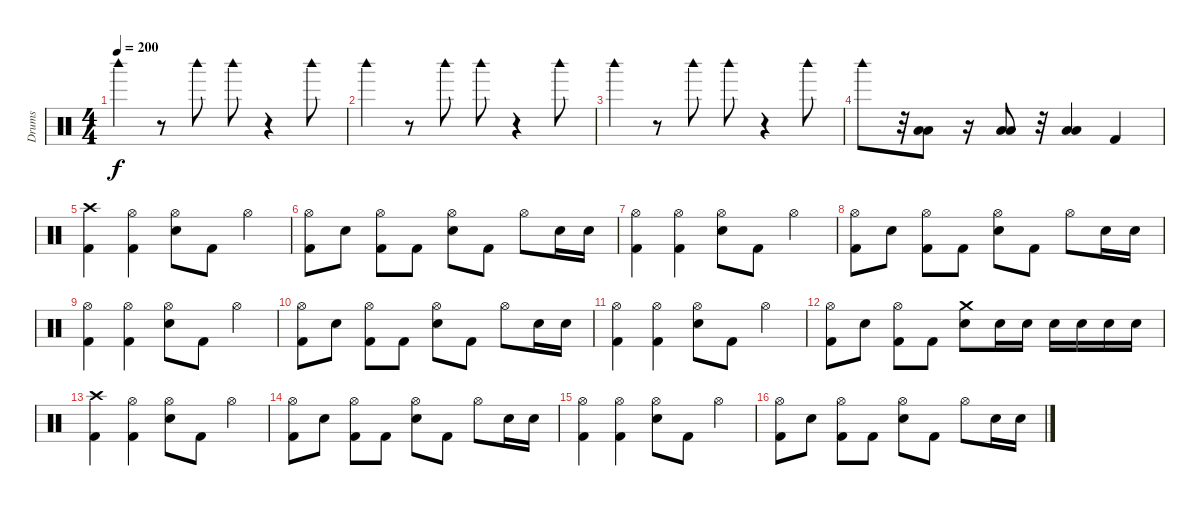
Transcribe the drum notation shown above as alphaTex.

\track ("Drums" "Drums") {instrument percussion}
\staff {score}
\articulation defaults
\ts (4 4)
\tempo 200
\clef neutral
\ks c "Woodblock high (hit)".4{dy f}
r.8 "Woodblock high (hit)".8 "Woodblock high (hit)".8 r.4 "Woodblock high (hit)".8 |
"Woodblock high (hit)".4 r.8 "Woodblock high (hit)".8 "Woodblock high (hit)".8 r.4 "Woodblock high (hit)".8 |
"Woodblock high (hit)".4 r.8 "Woodblock high (hit)".8 "Woodblock high (hit)".8 r.4 "Woodblock high (hit)".8 |
"Woodblock high (hit)".8 r.32 ("Low Tom (hit)" "Low Floor Tom (hit)").8 r.16 ("Low Tom (hit)" "Low Floor Tom (hit)").8 r.32 ("Low Tom (hit)" "Low Floor Tom (hit)").4 "Kick (hit) 2".4 |
("Crash high (hit)" "Kick (hit) 2").4 ("Hi-Hat (open)" "Kick (hit) 2").4 ("Hi-Hat (open)" "Electric Snare (hit)").8 "Kick (hit) 2".8 "Hi-Hat (open)".4 |
("Hi-Hat (open)" "Kick (hit) 2").8 "Electric Snare (hit)".8 ("Hi-Hat (open)" "Kick (hit) 2").8 "Kick (hit) 2".8 ("Hi-Hat (open)" "Electric Snare (hit)").8 "Kick (hit) 2".8 "Hi-Hat (open)".8 "Electric Snare (hit)".16 "Electric Snare (hit)".16 |
("Hi-Hat (open)" "Kick (hit) 2").4 ("Hi-Hat (open)" "Kick (hit) 2").4 ("Hi-Hat (open)" "Electric Snare (hit)").8 "Kick (hit) 2".8 "Hi-Hat (open)".4 |
("Hi-Hat (open)" "Kick (hit) 2").8 "Electric Snare (hit)".8 ("Hi-Hat (open)" "Kick (hit) 2").8 "Kick (hit) 2".8 ("Hi-Hat (open)" "Electric Snare (hit)").8 "Kick (hit) 2".8 "Hi-Hat (open)".8 "Electric Snare (hit)".16 "Electric Snare (hit)".16 |
("Hi-Hat (open)" "Kick (hit) 2").4 ("Hi-Hat (open)" "Kick (hit) 2").4 ("Hi-Hat (open)" "Electric Snare (hit)").8 "Kick (hit) 2".8 "Hi-Hat (open)".4 |
("Hi-Hat (open)" "Kick (hit) 2").8 "Electric Snare (hit)".8 ("Hi-Hat (open)" "Kick (hit) 2").8 "Kick (hit) 2".8 ("Hi-Hat (open)" "Electric Snare (hit)").8 "Kick (hit) 2".8 "Hi-Hat (open)".8 "Electric Snare (hit)".16 "Electric Snare (hit)".16 |
("Hi-Hat (open)" "Kick (hit) 2").4 ("Hi-Hat (open)" "Kick (hit) 2").4 ("Hi-Hat (open)" "Electric Snare (hit)").8 "Kick (hit) 2".8 "Hi-Hat (open)".4 |
("Hi-Hat (open)" "Kick (hit) 2").8 "Electric Snare (hit)".8 ("Hi-Hat (open)" "Kick (hit) 2").8 "Kick (hit) 2".8 ("Crash medium (hit)" "Electric Snare (hit)").8 "Electric Snare (hit)".16 "Electric Snare (hit)".16 "Electric Snare (hit)".16 "Electric Snare (hit)".16 "Electric Snare (hit)".16 "Electric Snare (hit)".16 |
("Crash high (hit)" "Kick (hit) 2").4 ("Hi-Hat (open)" "Kick (hit) 2").4 ("Hi-Hat (open)" "Electric Snare (hit)").8 "Kick (hit) 2".8 "Hi-Hat (open)".4 |
("Hi-Hat (open)" "Kick (hit) 2").8 "Electric Snare (hit)".8 ("Hi-Hat (open)" "Kick (hit) 2").8 "Kick (hit) 2".8 ("Hi-Hat (open)" "Electric Snare (hit)").8 "Kick (hit) 2".8 "Hi-Hat (open)".8 "Electric Snare (hit)".16 "Electric Snare (hit)".16 |
("Hi-Hat (open)" "Kick (hit) 2").4 ("Hi-Hat (open)" "Kick (hit) 2").4 ("Hi-Hat (open)" "Electric Snare (hit)").8 "Kick (hit) 2".8 "Hi-Hat (open)".4 |
("Hi-Hat (open)" "Kick (hit) 2").8 "Electric Snare (hit)".8 ("Hi-Hat (open)" "Kick (hit) 2").8 "Kick (hit) 2".8 ("Hi-Hat (open)" "Electric Snare (hit)").8 "Kick (hit) 2".8 "Hi-Hat (open)".8 "Electric Snare (hit)".16 "Electric Snare (hit)".16
